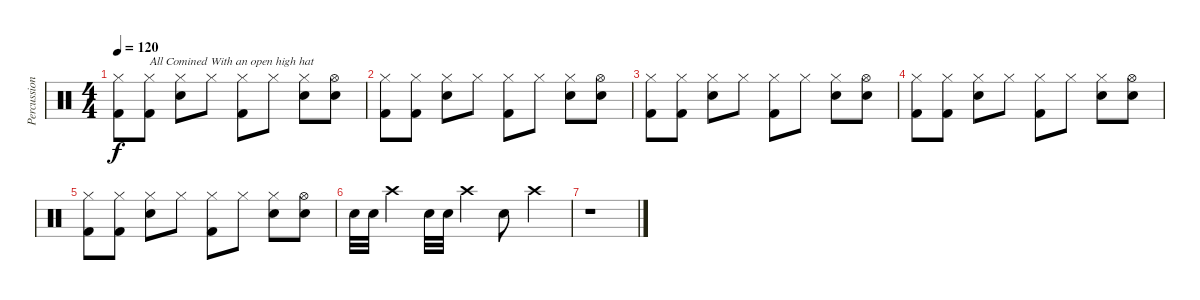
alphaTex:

\track ("Percussion" "Percussion") {instrument percussion}
\staff {score}
\articulation defaults
\ts (4 4)
\tempo 120
\clef neutral
\ks c
("Hi-Hat (closed)" "Kick (hit) 2").8{dy f} ("Hi-Hat (closed)" "Kick (hit) 2").8{txt "All Comined With an open high hat"} ("Snare (hit) 2" "Hi-Hat (closed)").8 "Hi-Hat (closed)".8 ("Hi-Hat (closed)" "Kick (hit) 2").8 "Hi-Hat (closed)".8 ("Snare (hit) 2" "Hi-Hat (closed)").8 ("Snare (hit) 2" "Hi-Hat (open)").8 |
("Hi-Hat (closed)" "Kick (hit) 2").8 ("Hi-Hat (closed)" "Kick (hit) 2").8 ("Snare (hit) 2" "Hi-Hat (closed)").8 "Hi-Hat (closed)".8 ("Hi-Hat (closed)" "Kick (hit) 2").8 "Hi-Hat (closed)".8 ("Snare (hit) 2" "Hi-Hat (closed)").8 ("Snare (hit) 2" "Hi-Hat (open)").8 |
("Hi-Hat (closed)" "Kick (hit) 2").8 ("Hi-Hat (closed)" "Kick (hit) 2").8 ("Snare (hit) 2" "Hi-Hat (closed)").8 "Hi-Hat (closed)".8 ("Hi-Hat (closed)" "Kick (hit) 2").8 "Hi-Hat (closed)".8 ("Snare (hit) 2" "Hi-Hat (closed)").8 ("Snare (hit) 2" "Hi-Hat (open)").8 |
("Hi-Hat (closed)" "Kick (hit) 2").8 ("Hi-Hat (closed)" "Kick (hit) 2").8 ("Snare (hit) 2" "Hi-Hat (closed)").8 "Hi-Hat (closed)".8 ("Hi-Hat (closed)" "Kick (hit) 2").8 "Hi-Hat (closed)".8 ("Snare (hit) 2" "Hi-Hat (closed)").8 ("Snare (hit) 2" "Hi-Hat (open)").8 |
("Hi-Hat (closed)" "Kick (hit) 2").8 ("Hi-Hat (closed)" "Kick (hit) 2").8 ("Snare (hit) 2" "Hi-Hat (closed)").8 "Hi-Hat (closed)".8 ("Hi-Hat (closed)" "Kick (hit) 2").8 "Hi-Hat (closed)".8 ("Snare (hit) 2" "Hi-Hat (closed)").8 ("Snare (hit) 2" "Hi-Hat (open)").8 |
"Snare (hit) 2".32 "Snare (hit) 2".32 "Crash high (hit)".4 "Snare (hit) 2".32 "Snare (hit) 2".32 "Crash high (hit)".4 "Snare (hit) 2".8 "Crash high (hit)".4 |
r.1
